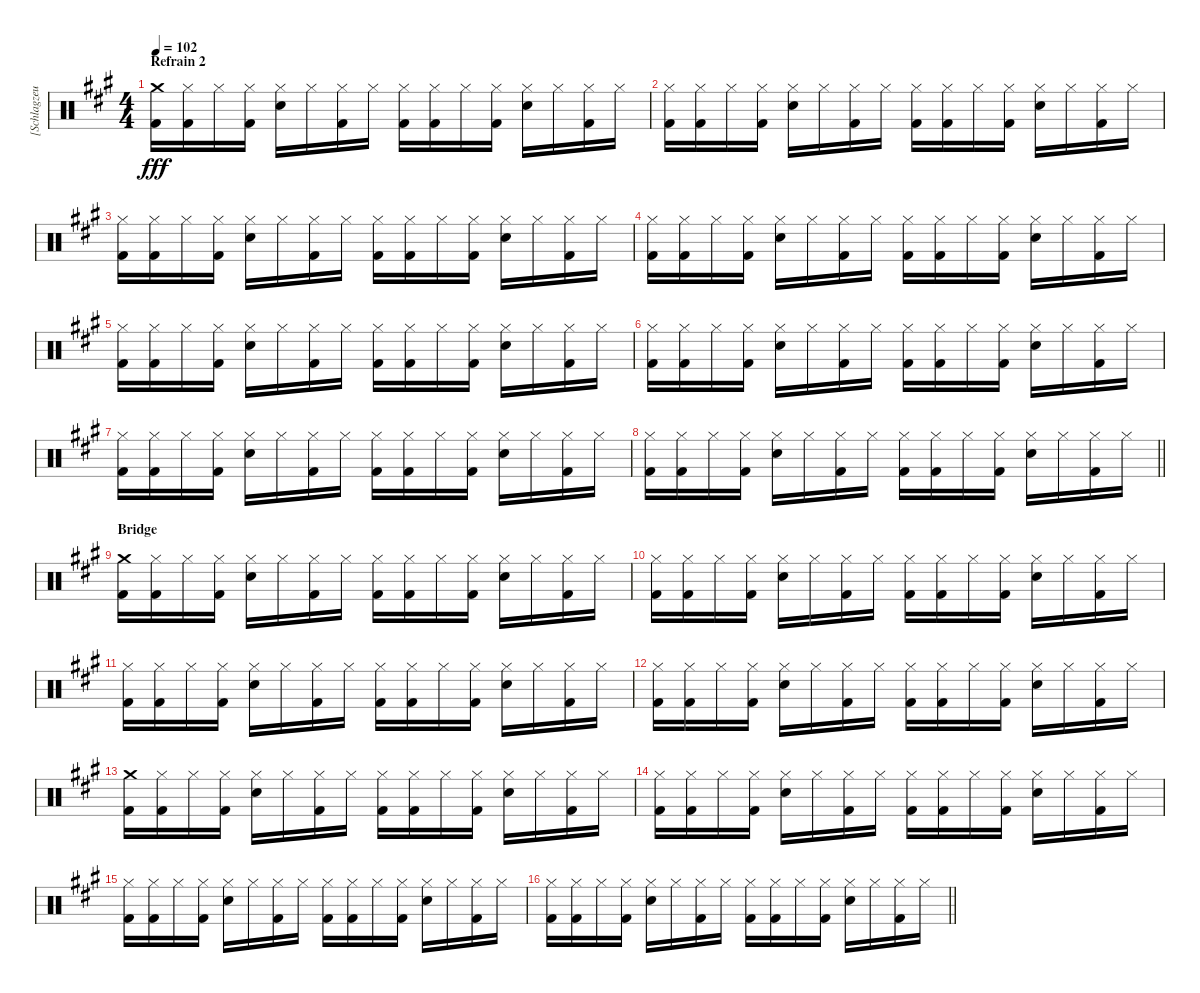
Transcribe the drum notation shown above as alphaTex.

\track ("[Schlagzeug]" "[Schlagzeu") {instrument percussion}
\staff {score}
\articulation defaults
\ts (4 4)
\section ("" "Refrain 2")
\tempo 102
\clef neutral
\ks f#minor
("Kick (hit) 2" "Crash medium (hit)").16{dy fff} ("Kick (hit) 2" "Hi-Hat (closed)").16 "Hi-Hat (closed)".16 ("Kick (hit) 2" "Hi-Hat (closed)").16 ("Electric Snare (hit)" "Hi-Hat (closed)").16 "Hi-Hat (closed)".16 ("Kick (hit) 2" "Hi-Hat (closed)").16 "Hi-Hat (closed)".16 ("Kick (hit) 2" "Hi-Hat (closed)").16 ("Kick (hit) 2" "Hi-Hat (closed)").16 "Hi-Hat (closed)".16 ("Kick (hit) 2" "Hi-Hat (closed)").16 ("Electric Snare (hit)" "Hi-Hat (closed)").16 "Hi-Hat (closed)".16 ("Kick (hit) 2" "Hi-Hat (closed)").16 "Hi-Hat (closed)".16 |
("Kick (hit) 2" "Hi-Hat (closed)").16 ("Kick (hit) 2" "Hi-Hat (closed)").16 "Hi-Hat (closed)".16 ("Kick (hit) 2" "Hi-Hat (closed)").16 ("Electric Snare (hit)" "Hi-Hat (closed)").16 "Hi-Hat (closed)".16 ("Kick (hit) 2" "Hi-Hat (closed)").16 "Hi-Hat (closed)".16 ("Kick (hit) 2" "Hi-Hat (closed)").16 ("Kick (hit) 2" "Hi-Hat (closed)").16 "Hi-Hat (closed)".16 ("Kick (hit) 2" "Hi-Hat (closed)").16 ("Electric Snare (hit)" "Hi-Hat (closed)").16 "Hi-Hat (closed)".16 ("Kick (hit) 2" "Hi-Hat (closed)").16 "Hi-Hat (closed)".16 |
("Kick (hit) 2" "Hi-Hat (closed)").16 ("Kick (hit) 2" "Hi-Hat (closed)").16 "Hi-Hat (closed)".16 ("Kick (hit) 2" "Hi-Hat (closed)").16 ("Electric Snare (hit)" "Hi-Hat (closed)").16 "Hi-Hat (closed)".16 ("Kick (hit) 2" "Hi-Hat (closed)").16 "Hi-Hat (closed)".16 ("Kick (hit) 2" "Hi-Hat (closed)").16 ("Kick (hit) 2" "Hi-Hat (closed)").16 "Hi-Hat (closed)".16 ("Kick (hit) 2" "Hi-Hat (closed)").16 ("Electric Snare (hit)" "Hi-Hat (closed)").16 "Hi-Hat (closed)".16 ("Kick (hit) 2" "Hi-Hat (closed)").16 "Hi-Hat (closed)".16 |
("Kick (hit) 2" "Hi-Hat (closed)").16 ("Kick (hit) 2" "Hi-Hat (closed)").16 "Hi-Hat (closed)".16 ("Kick (hit) 2" "Hi-Hat (closed)").16 ("Electric Snare (hit)" "Hi-Hat (closed)").16 "Hi-Hat (closed)".16 ("Kick (hit) 2" "Hi-Hat (closed)").16 "Hi-Hat (closed)".16 ("Kick (hit) 2" "Hi-Hat (closed)").16 ("Kick (hit) 2" "Hi-Hat (closed)").16 "Hi-Hat (closed)".16 ("Kick (hit) 2" "Hi-Hat (closed)").16 ("Electric Snare (hit)" "Hi-Hat (closed)").16 "Hi-Hat (closed)".16 ("Kick (hit) 2" "Hi-Hat (closed)").16 "Hi-Hat (closed)".16 |
("Kick (hit) 2" "Hi-Hat (closed)").16 ("Kick (hit) 2" "Hi-Hat (closed)").16 "Hi-Hat (closed)".16 ("Kick (hit) 2" "Hi-Hat (closed)").16 ("Electric Snare (hit)" "Hi-Hat (closed)").16 "Hi-Hat (closed)".16 ("Kick (hit) 2" "Hi-Hat (closed)").16 "Hi-Hat (closed)".16 ("Kick (hit) 2" "Hi-Hat (closed)").16 ("Kick (hit) 2" "Hi-Hat (closed)").16 "Hi-Hat (closed)".16 ("Kick (hit) 2" "Hi-Hat (closed)").16 ("Electric Snare (hit)" "Hi-Hat (closed)").16 "Hi-Hat (closed)".16 ("Kick (hit) 2" "Hi-Hat (closed)").16 "Hi-Hat (closed)".16 |
("Kick (hit) 2" "Hi-Hat (closed)").16 ("Kick (hit) 2" "Hi-Hat (closed)").16 "Hi-Hat (closed)".16 ("Kick (hit) 2" "Hi-Hat (closed)").16 ("Electric Snare (hit)" "Hi-Hat (closed)").16 "Hi-Hat (closed)".16 ("Kick (hit) 2" "Hi-Hat (closed)").16 "Hi-Hat (closed)".16 ("Kick (hit) 2" "Hi-Hat (closed)").16 ("Kick (hit) 2" "Hi-Hat (closed)").16 "Hi-Hat (closed)".16 ("Kick (hit) 2" "Hi-Hat (closed)").16 ("Electric Snare (hit)" "Hi-Hat (closed)").16 "Hi-Hat (closed)".16 ("Kick (hit) 2" "Hi-Hat (closed)").16 "Hi-Hat (closed)".16 |
("Kick (hit) 2" "Hi-Hat (closed)").16 ("Kick (hit) 2" "Hi-Hat (closed)").16 "Hi-Hat (closed)".16 ("Kick (hit) 2" "Hi-Hat (closed)").16 ("Electric Snare (hit)" "Hi-Hat (closed)").16 "Hi-Hat (closed)".16 ("Kick (hit) 2" "Hi-Hat (closed)").16 "Hi-Hat (closed)".16 ("Kick (hit) 2" "Hi-Hat (closed)").16 ("Kick (hit) 2" "Hi-Hat (closed)").16 "Hi-Hat (closed)".16 ("Kick (hit) 2" "Hi-Hat (closed)").16 ("Electric Snare (hit)" "Hi-Hat (closed)").16 "Hi-Hat (closed)".16 ("Kick (hit) 2" "Hi-Hat (closed)").16 "Hi-Hat (closed)".16 |
\barLineRight lightlight
("Kick (hit) 2" "Hi-Hat (closed)").16 ("Kick (hit) 2" "Hi-Hat (closed)").16 "Hi-Hat (closed)".16 ("Kick (hit) 2" "Hi-Hat (closed)").16 ("Electric Snare (hit)" "Hi-Hat (closed)").16 "Hi-Hat (closed)".16 ("Kick (hit) 2" "Hi-Hat (closed)").16 "Hi-Hat (closed)".16 ("Kick (hit) 2" "Hi-Hat (closed)").16 ("Kick (hit) 2" "Hi-Hat (closed)").16 "Hi-Hat (closed)".16 ("Kick (hit) 2" "Hi-Hat (closed)").16 ("Electric Snare (hit)" "Hi-Hat (closed)").16 "Hi-Hat (closed)".16 ("Kick (hit) 2" "Hi-Hat (closed)").16 "Hi-Hat (closed)".16 |
\section ("" "Bridge")
("Kick (hit) 2" "Crash medium (hit)").16 ("Kick (hit) 2" "Hi-Hat (closed)").16 "Hi-Hat (closed)".16 ("Kick (hit) 2" "Hi-Hat (closed)").16 ("Electric Snare (hit)" "Hi-Hat (closed)").16 "Hi-Hat (closed)".16 ("Kick (hit) 2" "Hi-Hat (closed)").16 "Hi-Hat (closed)".16 ("Kick (hit) 2" "Hi-Hat (closed)").16 ("Kick (hit) 2" "Hi-Hat (closed)").16 "Hi-Hat (closed)".16 ("Kick (hit) 2" "Hi-Hat (closed)").16 ("Electric Snare (hit)" "Hi-Hat (closed)").16 "Hi-Hat (closed)".16 ("Kick (hit) 2" "Hi-Hat (closed)").16 "Hi-Hat (closed)".16 |
("Kick (hit) 2" "Hi-Hat (closed)").16 ("Kick (hit) 2" "Hi-Hat (closed)").16 "Hi-Hat (closed)".16 ("Kick (hit) 2" "Hi-Hat (closed)").16 ("Electric Snare (hit)" "Hi-Hat (closed)").16 "Hi-Hat (closed)".16 ("Kick (hit) 2" "Hi-Hat (closed)").16 "Hi-Hat (closed)".16 ("Kick (hit) 2" "Hi-Hat (closed)").16 ("Kick (hit) 2" "Hi-Hat (closed)").16 "Hi-Hat (closed)".16 ("Kick (hit) 2" "Hi-Hat (closed)").16 ("Electric Snare (hit)" "Hi-Hat (closed)").16 "Hi-Hat (closed)".16 ("Kick (hit) 2" "Hi-Hat (closed)").16 "Hi-Hat (closed)".16 |
("Kick (hit) 2" "Hi-Hat (closed)").16 ("Kick (hit) 2" "Hi-Hat (closed)").16 "Hi-Hat (closed)".16 ("Kick (hit) 2" "Hi-Hat (closed)").16 ("Electric Snare (hit)" "Hi-Hat (closed)").16 "Hi-Hat (closed)".16 ("Kick (hit) 2" "Hi-Hat (closed)").16 "Hi-Hat (closed)".16 ("Kick (hit) 2" "Hi-Hat (closed)").16 ("Kick (hit) 2" "Hi-Hat (closed)").16 "Hi-Hat (closed)".16 ("Kick (hit) 2" "Hi-Hat (closed)").16 ("Electric Snare (hit)" "Hi-Hat (closed)").16 "Hi-Hat (closed)".16 ("Kick (hit) 2" "Hi-Hat (closed)").16 "Hi-Hat (closed)".16 |
("Kick (hit) 2" "Hi-Hat (closed)").16 ("Kick (hit) 2" "Hi-Hat (closed)").16 "Hi-Hat (closed)".16 ("Kick (hit) 2" "Hi-Hat (closed)").16 ("Electric Snare (hit)" "Hi-Hat (closed)").16 "Hi-Hat (closed)".16 ("Kick (hit) 2" "Hi-Hat (closed)").16 "Hi-Hat (closed)".16 ("Kick (hit) 2" "Hi-Hat (closed)").16 ("Kick (hit) 2" "Hi-Hat (closed)").16 "Hi-Hat (closed)".16 ("Kick (hit) 2" "Hi-Hat (closed)").16 ("Electric Snare (hit)" "Hi-Hat (closed)").16 "Hi-Hat (closed)".16 ("Kick (hit) 2" "Hi-Hat (closed)").16 "Hi-Hat (closed)".16 |
("Kick (hit) 2" "Crash medium (hit)").16 ("Kick (hit) 2" "Hi-Hat (closed)").16 "Hi-Hat (closed)".16 ("Kick (hit) 2" "Hi-Hat (closed)").16 ("Electric Snare (hit)" "Hi-Hat (closed)").16 "Hi-Hat (closed)".16 ("Kick (hit) 2" "Hi-Hat (closed)").16 "Hi-Hat (closed)".16 ("Kick (hit) 2" "Hi-Hat (closed)").16 ("Kick (hit) 2" "Hi-Hat (closed)").16 "Hi-Hat (closed)".16 ("Kick (hit) 2" "Hi-Hat (closed)").16 ("Electric Snare (hit)" "Hi-Hat (closed)").16 "Hi-Hat (closed)".16 ("Kick (hit) 2" "Hi-Hat (closed)").16 "Hi-Hat (closed)".16 |
("Kick (hit) 2" "Hi-Hat (closed)").16 ("Kick (hit) 2" "Hi-Hat (closed)").16 "Hi-Hat (closed)".16 ("Kick (hit) 2" "Hi-Hat (closed)").16 ("Electric Snare (hit)" "Hi-Hat (closed)").16 "Hi-Hat (closed)".16 ("Kick (hit) 2" "Hi-Hat (closed)").16 "Hi-Hat (closed)".16 ("Kick (hit) 2" "Hi-Hat (closed)").16 ("Kick (hit) 2" "Hi-Hat (closed)").16 "Hi-Hat (closed)".16 ("Kick (hit) 2" "Hi-Hat (closed)").16 ("Electric Snare (hit)" "Hi-Hat (closed)").16 "Hi-Hat (closed)".16 ("Kick (hit) 2" "Hi-Hat (closed)").16 "Hi-Hat (closed)".16 |
("Kick (hit) 2" "Hi-Hat (closed)").16 ("Kick (hit) 2" "Hi-Hat (closed)").16 "Hi-Hat (closed)".16 ("Kick (hit) 2" "Hi-Hat (closed)").16 ("Electric Snare (hit)" "Hi-Hat (closed)").16 "Hi-Hat (closed)".16 ("Kick (hit) 2" "Hi-Hat (closed)").16 "Hi-Hat (closed)".16 ("Kick (hit) 2" "Hi-Hat (closed)").16 ("Kick (hit) 2" "Hi-Hat (closed)").16 "Hi-Hat (closed)".16 ("Kick (hit) 2" "Hi-Hat (closed)").16 ("Electric Snare (hit)" "Hi-Hat (closed)").16 "Hi-Hat (closed)".16 ("Kick (hit) 2" "Hi-Hat (closed)").16 "Hi-Hat (closed)".16 |
\barLineRight lightlight
("Kick (hit) 2" "Hi-Hat (closed)").16 ("Kick (hit) 2" "Hi-Hat (closed)").16 "Hi-Hat (closed)".16 ("Kick (hit) 2" "Hi-Hat (closed)").16 ("Electric Snare (hit)" "Hi-Hat (closed)").16 "Hi-Hat (closed)".16 ("Kick (hit) 2" "Hi-Hat (closed)").16 "Hi-Hat (closed)".16 ("Kick (hit) 2" "Hi-Hat (closed)").16 ("Kick (hit) 2" "Hi-Hat (closed)").16 "Hi-Hat (closed)".16 ("Kick (hit) 2" "Hi-Hat (closed)").16 ("Electric Snare (hit)" "Hi-Hat (closed)").16 "Hi-Hat (closed)".16 ("Kick (hit) 2" "Hi-Hat (closed)").16 "Hi-Hat (closed)".16
